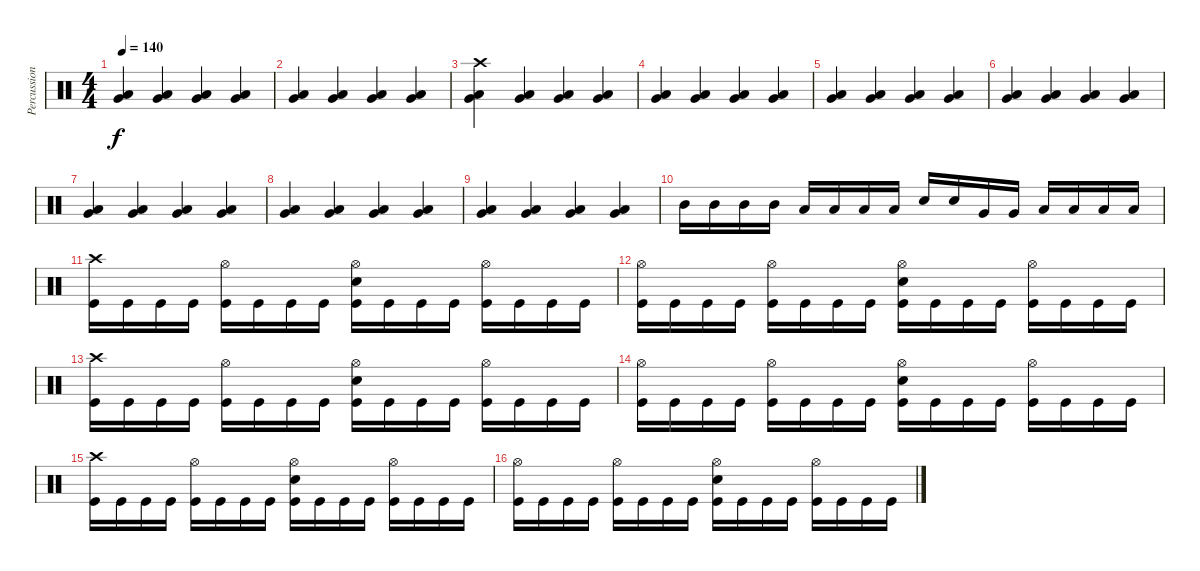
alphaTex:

\track ("Percussion" "Percussion") {instrument percussion}
\staff {score}
\articulation defaults
\ts (4 4)
\tempo 140
\clef neutral
\ks c
("Low Tom (hit)" "Very Low Tom (hit)").4{dy f} ("Low Tom (hit)" "Very Low Tom (hit)").4 ("Low Tom (hit)" "Very Low Tom (hit)").4 ("Low Tom (hit)" "Very Low Tom (hit)").4 |
("Low Tom (hit)" "Very Low Tom (hit)").4 ("Low Tom (hit)" "Very Low Tom (hit)").4 ("Low Tom (hit)" "Very Low Tom (hit)").4 ("Low Tom (hit)" "Very Low Tom (hit)").4 |
("Crash high (hit)" "Low Tom (hit)" "Very Low Tom (hit)").4 ("Low Tom (hit)" "Very Low Tom (hit)").4 ("Low Tom (hit)" "Very Low Tom (hit)").4 ("Low Tom (hit)" "Very Low Tom (hit)").4 |
("Low Tom (hit)" "Very Low Tom (hit)").4 ("Low Tom (hit)" "Very Low Tom (hit)").4 ("Low Tom (hit)" "Very Low Tom (hit)").4 ("Low Tom (hit)" "Very Low Tom (hit)").4 |
("Low Tom (hit)" "Very Low Tom (hit)").4 ("Low Tom (hit)" "Very Low Tom (hit)").4 ("Low Tom (hit)" "Very Low Tom (hit)").4 ("Low Tom (hit)" "Very Low Tom (hit)").4 |
("Low Tom (hit)" "Very Low Tom (hit)").4 ("Low Tom (hit)" "Very Low Tom (hit)").4 ("Low Tom (hit)" "Very Low Tom (hit)").4 ("Low Tom (hit)" "Very Low Tom (hit)").4 |
("Low Tom (hit)" "Very Low Tom (hit)").4 ("Low Tom (hit)" "Very Low Tom (hit)").4 ("Low Tom (hit)" "Very Low Tom (hit)").4 ("Low Tom (hit)" "Very Low Tom (hit)").4 |
("Low Tom (hit)" "Very Low Tom (hit)").4 ("Low Tom (hit)" "Very Low Tom (hit)").4 ("Low Tom (hit)" "Very Low Tom (hit)").4 ("Low Tom (hit)" "Very Low Tom (hit)").4 |
("Low Tom (hit)" "Very Low Tom (hit)").4 ("Low Tom (hit)" "Very Low Tom (hit)").4 ("Low Tom (hit)" "Very Low Tom (hit)").4 ("Low Tom (hit)" "Very Low Tom (hit)").4 |
"Mid Tom (hit)".16 "Mid Tom (hit)".16 "Mid Tom (hit)".16 "Mid Tom (hit)".16 "Low Tom (hit)".16 "Low Tom (hit)".16 "Low Tom (hit)".16 "Low Tom (hit)".16 "Snare (hit) 2".16 "Snare (hit) 2".16 "Very Low Tom (hit)".16 "Very Low Tom (hit)".16 "Low Floor Tom (hit)".16 "Low Floor Tom (hit)".16 "Low Floor Tom (hit)".16 "Low Floor Tom (hit)".16 |
("Crash high (hit)" "Kick (hit)").16 "Kick (hit)".16 "Kick (hit)".16 "Kick (hit)".16 ("Hi-Hat (open)" "Kick (hit)").16 "Kick (hit)".16 "Kick (hit)".16 "Kick (hit)".16 ("Hi-Hat (open)" "Snare (hit) 2" "Kick (hit)").16 "Kick (hit)".16 "Kick (hit)".16 "Kick (hit)".16 ("Hi-Hat (open)" "Kick (hit)").16 "Kick (hit)".16 "Kick (hit)".16 "Kick (hit)".16 |
("Hi-Hat (open)" "Kick (hit)").16 "Kick (hit)".16 "Kick (hit)".16 "Kick (hit)".16 ("Hi-Hat (open)" "Kick (hit)").16 "Kick (hit)".16 "Kick (hit)".16 "Kick (hit)".16 ("Hi-Hat (open)" "Snare (hit) 2" "Kick (hit)").16 "Kick (hit)".16 "Kick (hit)".16 "Kick (hit)".16 ("Hi-Hat (open)" "Kick (hit)").16 "Kick (hit)".16 "Kick (hit)".16 "Kick (hit)".16 |
("Crash high (hit)" "Kick (hit)").16 "Kick (hit)".16 "Kick (hit)".16 "Kick (hit)".16 ("Hi-Hat (open)" "Kick (hit)").16 "Kick (hit)".16 "Kick (hit)".16 "Kick (hit)".16 ("Hi-Hat (open)" "Snare (hit) 2" "Kick (hit)").16 "Kick (hit)".16 "Kick (hit)".16 "Kick (hit)".16 ("Hi-Hat (open)" "Kick (hit)").16 "Kick (hit)".16 "Kick (hit)".16 "Kick (hit)".16 |
("Hi-Hat (open)" "Kick (hit)").16 "Kick (hit)".16 "Kick (hit)".16 "Kick (hit)".16 ("Hi-Hat (open)" "Kick (hit)").16 "Kick (hit)".16 "Kick (hit)".16 "Kick (hit)".16 ("Hi-Hat (open)" "Snare (hit) 2" "Kick (hit)").16 "Kick (hit)".16 "Kick (hit)".16 "Kick (hit)".16 ("Hi-Hat (open)" "Kick (hit)").16 "Kick (hit)".16 "Kick (hit)".16 "Kick (hit)".16 |
("Crash high (hit)" "Kick (hit)").16 "Kick (hit)".16 "Kick (hit)".16 "Kick (hit)".16 ("Hi-Hat (open)" "Kick (hit)").16 "Kick (hit)".16 "Kick (hit)".16 "Kick (hit)".16 ("Hi-Hat (open)" "Snare (hit) 2" "Kick (hit)").16 "Kick (hit)".16 "Kick (hit)".16 "Kick (hit)".16 ("Hi-Hat (open)" "Kick (hit)").16 "Kick (hit)".16 "Kick (hit)".16 "Kick (hit)".16 |
("Hi-Hat (open)" "Kick (hit)").16 "Kick (hit)".16 "Kick (hit)".16 "Kick (hit)".16 ("Hi-Hat (open)" "Kick (hit)").16 "Kick (hit)".16 "Kick (hit)".16 "Kick (hit)".16 ("Hi-Hat (open)" "Snare (hit) 2" "Kick (hit)").16 "Kick (hit)".16 "Kick (hit)".16 "Kick (hit)".16 ("Hi-Hat (open)" "Kick (hit)").16 "Kick (hit)".16 "Kick (hit)".16 "Kick (hit)".16
